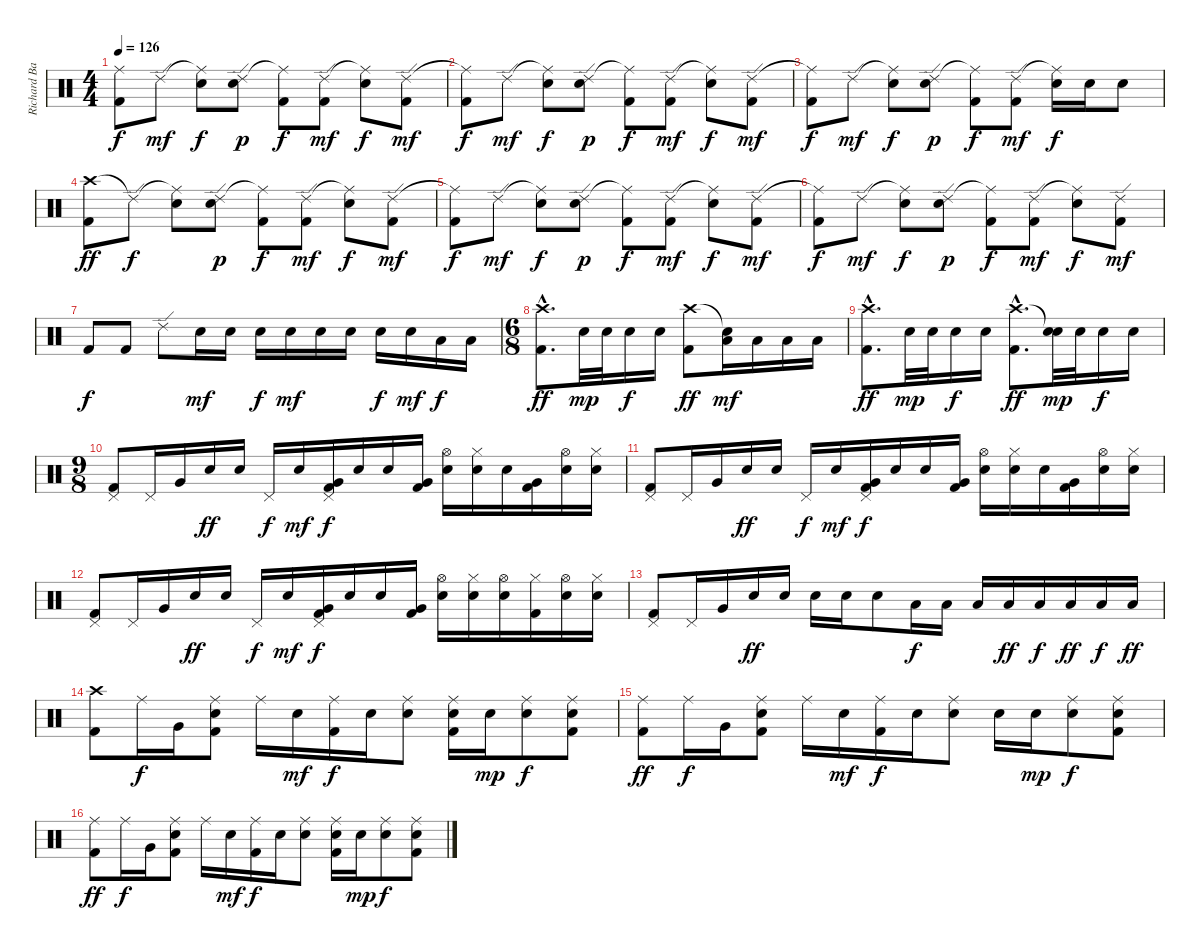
\track ("Richard Bailey" "Richard Ba") {instrument percussion}
\staff {score}
\articulation defaults
\ts (4 4)
\tempo 126
\clef neutral
\ks c
("Ride (middle)"{t} "Kick (hit) 2").8{dy f} "Ride (edge) 2".8{dy mf} ("Ride (middle)"{t} "Snare (hit) 2").8{dy f} ("Ride (edge) 2" "Snare (hit) 2").8{dy p} ("Ride (middle)"{t} "Kick (hit) 2").8{dy f} ("Ride (edge) 2" "Kick (hit) 2").8{dy mf} ("Ride (middle)"{t} "Snare (hit) 2").8{dy f} ("Ride (edge) 2" "Kick (hit) 2").8{dy mf} |
("Ride (middle)"{t} "Kick (hit) 2").8{dy f} "Ride (edge) 2".8{dy mf} ("Ride (middle)"{t} "Snare (hit) 2").8{dy f} ("Ride (edge) 2" "Snare (hit) 2").8{dy p} ("Ride (middle)"{t} "Kick (hit) 2").8{dy f} ("Ride (edge) 2" "Kick (hit) 2").8{dy mf} ("Ride (middle)"{t} "Snare (hit) 2").8{dy f} ("Ride (edge) 2" "Kick (hit) 2").8{dy mf} |
("Ride (middle)"{t} "Kick (hit) 2").8{dy f} "Ride (edge) 2".8{dy mf} ("Ride (middle)"{t} "Snare (hit) 2").8{dy f} ("Ride (edge) 2" "Snare (hit) 2").8{dy p} ("Ride (middle)"{t} "Kick (hit) 2").8{dy f} ("Ride (edge) 2" "Kick (hit) 2").8{dy mf} ("Ride (middle)"{t} "Snare (hit) 2").16{dy f} "Snare (hit) 2".16 "Snare (hit) 2".8 |
("Crash high (hit)" "Kick (hit) 2").8{dy ff} "Ride (edge) 2"{t}.8{dy f} ("Ride (middle)"{t} "Snare (hit) 2").8 ("Ride (edge) 2" "Snare (hit) 2").8{dy p} ("Ride (middle)"{t} "Kick (hit) 2").8{dy f} ("Ride (edge) 2" "Kick (hit) 2").8{dy mf} ("Ride (middle)"{t} "Snare (hit) 2").8{dy f} ("Ride (edge) 2" "Kick (hit) 2").8{dy mf} |
("Ride (middle)"{t} "Kick (hit) 2").8{dy f} "Ride (edge) 2".8{dy mf} ("Ride (middle)"{t} "Snare (hit) 2").8{dy f} ("Ride (edge) 2" "Snare (hit) 2").8{dy p} ("Ride (middle)"{t} "Kick (hit) 2").8{dy f} ("Ride (edge) 2" "Kick (hit) 2").8{dy mf} ("Ride (middle)"{t} "Snare (hit) 2").8{dy f} ("Ride (edge) 2" "Kick (hit) 2").8{dy mf} |
("Ride (middle)"{t} "Kick (hit) 2").8{dy f} "Ride (edge) 2".8{dy mf} ("Ride (middle)"{t} "Snare (hit) 2").8{dy f} ("Ride (edge) 2" "Snare (hit) 2").8{dy p} ("Ride (middle)"{t} "Kick (hit) 2").8{dy f} ("Ride (edge) 2" "Kick (hit) 2").8{dy mf} ("Ride (middle)"{t} "Snare (hit) 2").8{dy f} ("Ride (edge) 2" "Kick (hit) 2").8{dy mf} |
"Kick (hit) 2".8{dy f} "Kick (hit) 2".8 "Ride (edge) 2".8 "Snare (hit) 2".16{dy mf} "Snare (hit) 2".16 "Electric Snare (hit)".16{dy f} "Electric Snare (hit)".16{dy mf} "Snare (hit) 2".16 "Snare (hit) 2".16 "Electric Snare (hit)".16{dy f} "Electric Snare (hit)".16{dy mf} "Low Tom (hit)".16{dy f} "Low Tom (hit)".16 |
\ts (6 8)
("Crash high (hit)"{hac} "Kick (hit) 2"{hac}).8{d dy ff} "Snare (hit) 2".32{dy mp} "Snare (hit) 2".32 "Snare (hit) 2".16{dy f} "Snare (hit) 2".16 ("Crash high (hit)" "Kick (hit) 2").8{dy ff} ("Snare (hit)"{t} "Low Floor Tom (hit)").16{dy mf} "Low Floor Tom (hit)".16 "Low Floor Tom (hit)".16 "Low Floor Tom (hit)".16 |
("Crash high (hit)"{hac} "Kick (hit) 2"{hac}).8{d dy ff} "Snare (hit) 2".32{dy mp} "Snare (hit) 2".32 "Snare (hit) 2".16{dy f} "Snare (hit) 2".16 ("Crash high (hit)"{hac} "Kick (hit) 2"{hac}).8{d dy ff} ("Snare (hit)"{t} "Snare (hit) 2").32{dy mp} "Snare (hit) 2".32 "Snare (hit) 2".16{dy f} "Snare (hit) 2".16 |
\ts (9 8)
("Pedal Hi-Hat (hit)" "Kick (hit) 2").8 "Pedal Hi-Hat (hit)".16 "Very Low Tom (hit)".16 "Electric Snare (hit)".16{dy ff} "Electric Snare (hit)".16 "Pedal Hi-Hat (hit)".16{dy f} "Snare (hit) 2".16{dy mf} ("Pedal Hi-Hat (hit)" "Very Low Tom (hit)" "Kick (hit) 2").16{dy f} "Snare (hit) 2".16 "Snare (hit) 2".16 ("Very Low Tom (hit)" "Kick (hit) 2").16 ("Hi-Hat (open)" "Snare (hit) 2").16 ("Hi-Hat (closed)" "Snare (hit) 2").16 "Snare (hit) 2".16 ("Very Low Tom (hit)" "Kick (hit) 2").16 ("Hi-Hat (open)" "Electric Snare (hit)").16 ("Hi-Hat (closed)" "Electric Snare (hit)").16 |
("Pedal Hi-Hat (hit)" "Kick (hit) 2").8 "Pedal Hi-Hat (hit)".16 "Very Low Tom (hit)".16 "Electric Snare (hit)".16{dy ff} "Electric Snare (hit)".16 "Pedal Hi-Hat (hit)".16{dy f} "Snare (hit) 2".16{dy mf} ("Pedal Hi-Hat (hit)" "Very Low Tom (hit)" "Kick (hit) 2").16{dy f} "Snare (hit) 2".16 "Snare (hit) 2".16 ("Very Low Tom (hit)" "Kick (hit) 2").16 ("Hi-Hat (open)" "Snare (hit) 2").16 ("Hi-Hat (closed)" "Snare (hit) 2").16 "Snare (hit) 2".16 ("Very Low Tom (hit)" "Kick (hit) 2").16 ("Hi-Hat (open)" "Electric Snare (hit)").16 ("Hi-Hat (closed)" "Electric Snare (hit)").16 |
("Pedal Hi-Hat (hit)" "Kick (hit) 2").8 "Pedal Hi-Hat (hit)".16 "Very Low Tom (hit)".16 "Electric Snare (hit)".16{dy ff} "Electric Snare (hit)".16 "Pedal Hi-Hat (hit)".16{dy f} "Snare (hit) 2".16{dy mf} ("Pedal Hi-Hat (hit)" "Very Low Tom (hit)" "Kick (hit) 2").16{dy f} "Snare (hit) 2".16 "Snare (hit) 2".16 ("Very Low Tom (hit)" "Kick (hit) 2").16 ("Hi-Hat (open)" "Snare (hit) 2").16 ("Hi-Hat (closed)" "Snare (hit) 2").16 ("Hi-Hat (open)" "Snare (hit) 2").16 ("Hi-Hat (closed)" "Kick (hit) 2").16 ("Hi-Hat (open)" "Electric Snare (hit)").16 ("Hi-Hat (closed)" "Electric Snare (hit)").16 |
("Pedal Hi-Hat (hit)" "Kick (hit) 2").8 "Pedal Hi-Hat (hit)".16 "Very Low Tom (hit)".16 "Electric Snare (hit)".16{dy ff} "Electric Snare (hit)".16 "Snare (hit) 2".16 "Snare (hit) 2".16 "Snare (hit) 2".8 "Low Tom (hit)".16{dy f} "Low Tom (hit)".16 "Low Tom (hit)".16 "Low Floor Tom (hit)".16{dy ff} "Low Floor Tom (hit)".16{dy f} "Low Floor Tom (hit)".16{dy ff} "Low Floor Tom (hit)".16{dy f} "Low Floor Tom (hit)".16{dy ff} |
("Crash high (hit)" "Kick (hit) 2").8 "Ride (middle)".16{dy f} "Very Low Tom (hit)".16 ("Ride (middle)" "Snare (hit) 2" "Kick (hit) 2").8 "Ride (middle)".16 "Snare (hit) 2".16{dy mf} ("Ride (middle)" "Kick (hit) 2").16{dy f} "Snare (hit) 2".16 ("Ride (middle)" "Snare (hit) 2").8 ("Ride (middle)" "Snare (hit) 2" "Kick (hit) 2").16 "Snare (hit) 2".16{dy mp} ("Ride (middle)" "Snare (hit) 2").8{dy f} ("Ride (middle)" "Snare (hit) 2" "Kick (hit) 2").8 |
("Ride (middle)" "Kick (hit) 2").8{dy ff} "Ride (middle)".16{dy f} "Very Low Tom (hit)".16 ("Ride (middle)" "Snare (hit) 2" "Kick (hit) 2").8 "Ride (middle)".16 "Snare (hit) 2".16{dy mf} ("Ride (middle)" "Kick (hit) 2").16{dy f} "Snare (hit) 2".16 ("Ride (middle)" "Snare (hit) 2").8 "Snare (hit) 2".16 "Snare (hit) 2".16{dy mp} ("Ride (middle)" "Snare (hit) 2").8{dy f} ("Ride (middle)" "Snare (hit) 2" "Kick (hit) 2").8 |
("Ride (middle)" "Kick (hit) 2").8{dy ff} "Ride (middle)".16{dy f} "Very Low Tom (hit)".16 ("Ride (middle)" "Snare (hit) 2" "Kick (hit) 2").8 "Ride (middle)".16 "Snare (hit) 2".16{dy mf} ("Ride (middle)" "Kick (hit) 2").16{dy f} "Snare (hit) 2".16 ("Ride (middle)" "Snare (hit) 2").8 ("Ride (middle)" "Snare (hit) 2" "Kick (hit) 2").16 "Snare (hit) 2".16{dy mp} ("Ride (middle)" "Snare (hit) 2").8{dy f} ("Ride (middle)" "Snare (hit) 2" "Kick (hit) 2").8
